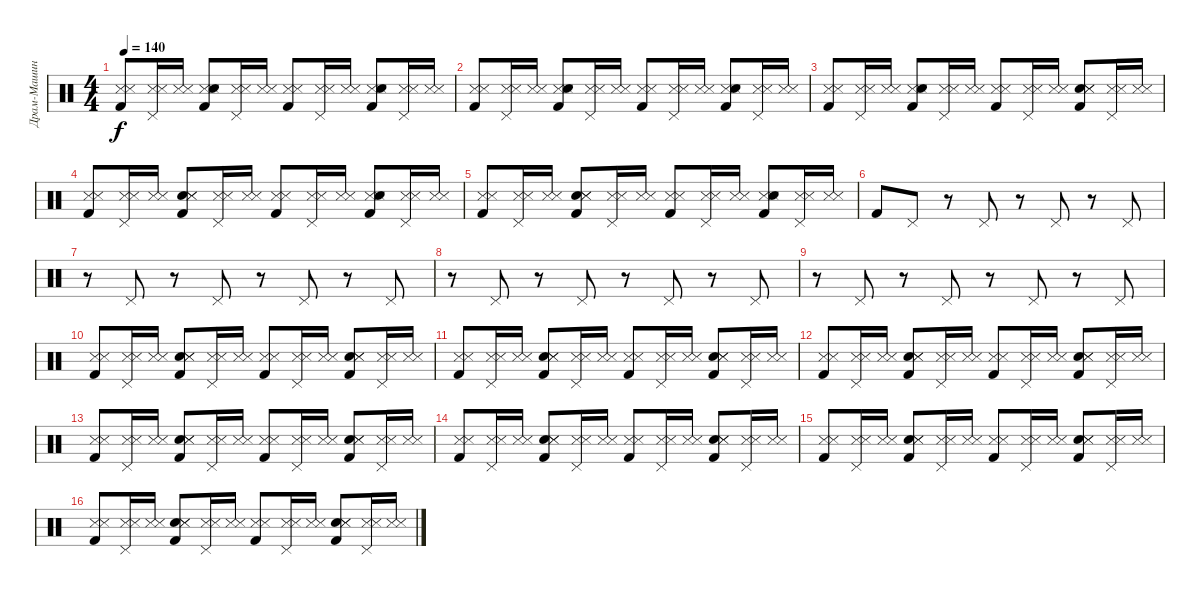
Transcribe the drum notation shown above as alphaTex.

\track ("Драм-Машина" "Драм-Машин") {instrument percussion}
\staff {score}
\articulation defaults
\ts (4 4)
\tempo 140
\clef neutral
\ks c
("Kick (hit) 2" "Snare (side stick) 3" "Metronome (hit)").8{dy f} ("Pedal Hi-Hat (hit)" "Snare (side stick) 3" "Metronome (hit)").16 ("Snare (side stick) 3" "Metronome (hit)").16 ("Kick (hit) 2" "Snare (side stick) 3" "Snare (hit) 2" "Metronome (hit)").8 ("Pedal Hi-Hat (hit)" "Snare (side stick) 3" "Metronome (hit)").16 ("Snare (side stick) 3" "Metronome (hit)").16 ("Snare (side stick) 3" "Kick (hit) 2" "Metronome (hit)").8 ("Snare (side stick) 3" "Pedal Hi-Hat (hit)" "Metronome (hit)").16 ("Snare (side stick) 3" "Metronome (hit)").16 ("Snare (side stick) 3" "Snare (hit) 2" "Kick (hit) 2" "Metronome (hit)").8 ("Pedal Hi-Hat (hit)" "Snare (side stick) 3" "Metronome (hit)").16 ("Snare (side stick) 3" "Metronome (hit)").16 |
("Snare (side stick) 3" "Kick (hit) 2" "Metronome (hit)").8 ("Pedal Hi-Hat (hit)" "Snare (side stick) 3" "Metronome (hit)").16 ("Snare (side stick) 3" "Metronome (hit)").16 ("Snare (side stick) 3" "Snare (hit) 2" "Kick (hit) 2" "Metronome (hit)").8 ("Pedal Hi-Hat (hit)" "Snare (side stick) 3" "Metronome (hit)").16 ("Snare (side stick) 3" "Metronome (hit)").16 ("Snare (side stick) 3" "Kick (hit) 2" "Metronome (hit)").8 ("Snare (side stick) 3" "Pedal Hi-Hat (hit)" "Metronome (hit)").16 ("Snare (side stick) 3" "Metronome (hit)").16 ("Snare (side stick) 3" "Kick (hit) 2" "Snare (hit) 2" "Metronome (hit)").8 ("Pedal Hi-Hat (hit)" "Snare (side stick) 3" "Metronome (hit)").16 ("Snare (side stick) 3" "Metronome (hit)").16 |
("Kick (hit) 2" "Snare (side stick) 3" "Metronome (hit)").8 ("Snare (side stick) 3" "Pedal Hi-Hat (hit)" "Metronome (hit)").16 ("Snare (side stick) 3" "Metronome (hit)").16 ("Kick (hit) 2" "Snare (side stick) 3" "Snare (hit) 2" "Metronome (hit)").8 ("Snare (side stick) 3" "Pedal Hi-Hat (hit)" "Metronome (hit)").16 ("Snare (side stick) 3" "Metronome (hit)").16 ("Snare (side stick) 3" "Kick (hit) 2" "Metronome (hit)").8 ("Snare (side stick) 3" "Pedal Hi-Hat (hit)" "Metronome (hit)").16 ("Snare (side stick) 3" "Metronome (hit)").16 ("Kick (hit) 2" "Snare (hit) 2" "Snare (side stick) 3" "Metronome (hit)").8 ("Snare (side stick) 3" "Pedal Hi-Hat (hit)" "Metronome (hit)").16 ("Snare (side stick) 3" "Metronome (hit)").16 |
("Kick (hit) 2" "Snare (side stick) 3" "Metronome (hit)").8 ("Pedal Hi-Hat (hit)" "Snare (side stick) 3" "Metronome (hit)").16 ("Snare (side stick) 3" "Metronome (hit)").16 ("Snare (hit) 2" "Kick (hit) 2" "Snare (side stick) 3" "Metronome (hit)").8 ("Snare (side stick) 3" "Pedal Hi-Hat (hit)" "Metronome (hit)").16 ("Snare (side stick) 3" "Metronome (hit)").16 ("Snare (side stick) 3" "Kick (hit) 2" "Metronome (hit)").8 ("Pedal Hi-Hat (hit)" "Snare (side stick) 3" "Metronome (hit)").16 ("Snare (side stick) 3" "Metronome (hit)").16 ("Snare (side stick) 3" "Snare (hit) 2" "Kick (hit) 2" "Metronome (hit)").8 ("Snare (side stick) 3" "Pedal Hi-Hat (hit)" "Metronome (hit)").16 ("Snare (side stick) 3" "Metronome (hit)").16 |
("Kick (hit) 2" "Snare (side stick) 3" "Metronome (hit)").8 ("Pedal Hi-Hat (hit)" "Snare (side stick) 3" "Metronome (hit)").16 ("Snare (side stick) 3" "Metronome (hit)").16 ("Snare (hit) 2" "Kick (hit) 2" "Snare (side stick) 3" "Metronome (hit)").8 ("Pedal Hi-Hat (hit)" "Snare (side stick) 3" "Metronome (hit)").16 ("Snare (side stick) 3" "Metronome (hit)").16 ("Kick (hit) 2" "Snare (side stick) 3" "Metronome (hit)").8 ("Snare (side stick) 3" "Pedal Hi-Hat (hit)" "Metronome (hit)").16 ("Snare (side stick) 3" "Metronome (hit)").16 ("Snare (side stick) 3" "Kick (hit) 2" "Snare (hit) 2" "Metronome (hit)").8 ("Pedal Hi-Hat (hit)" "Snare (side stick) 3" "Metronome (hit)").16 ("Snare (side stick) 3" "Metronome (hit)").16 |
"Kick (hit) 2".8 "Pedal Hi-Hat (hit)".8 r.8 "Pedal Hi-Hat (hit)".8 r.8 "Pedal Hi-Hat (hit)".8 r.8 "Pedal Hi-Hat (hit)".8 |
r.8 "Pedal Hi-Hat (hit)".8 r.8 "Pedal Hi-Hat (hit)".8 r.8 "Pedal Hi-Hat (hit)".8 r.8 "Pedal Hi-Hat (hit)".8 |
r.8 "Pedal Hi-Hat (hit)".8 r.8 "Pedal Hi-Hat (hit)".8 r.8 "Pedal Hi-Hat (hit)".8 r.8 "Pedal Hi-Hat (hit)".8 |
r.8 "Pedal Hi-Hat (hit)".8 r.8 "Pedal Hi-Hat (hit)".8 r.8 "Pedal Hi-Hat (hit)".8 r.8 "Pedal Hi-Hat (hit)".8 |
("Kick (hit) 2" "Snare (side stick) 3" "Metronome (hit)").8 ("Pedal Hi-Hat (hit)" "Snare (side stick) 3" "Metronome (hit)").16 ("Snare (side stick) 3" "Metronome (hit)").16 ("Snare (hit) 2" "Snare (side stick) 3" "Kick (hit) 2" "Metronome (hit)").8 ("Pedal Hi-Hat (hit)" "Snare (side stick) 3" "Metronome (hit)").16 ("Snare (side stick) 3" "Metronome (hit)").16 ("Kick (hit) 2" "Snare (side stick) 3" "Metronome (hit)").8 ("Pedal Hi-Hat (hit)" "Snare (side stick) 3" "Metronome (hit)").16 ("Snare (side stick) 3" "Metronome (hit)").16 ("Snare (hit) 2" "Snare (side stick) 3" "Kick (hit) 2" "Metronome (hit)").8 ("Pedal Hi-Hat (hit)" "Snare (side stick) 3" "Metronome (hit)").16 ("Snare (side stick) 3" "Metronome (hit)").16 |
("Kick (hit) 2" "Snare (side stick) 3" "Metronome (hit)").8 ("Pedal Hi-Hat (hit)" "Snare (side stick) 3" "Metronome (hit)").16 ("Snare (side stick) 3" "Metronome (hit)").16 ("Snare (hit) 2" "Snare (side stick) 3" "Kick (hit) 2" "Metronome (hit)").8 ("Pedal Hi-Hat (hit)" "Snare (side stick) 3" "Metronome (hit)").16 ("Snare (side stick) 3" "Metronome (hit)").16 ("Kick (hit) 2" "Snare (side stick) 3" "Metronome (hit)").8 ("Pedal Hi-Hat (hit)" "Snare (side stick) 3" "Metronome (hit)").16 ("Snare (side stick) 3" "Metronome (hit)").16 ("Snare (hit) 2" "Snare (side stick) 3" "Kick (hit) 2" "Metronome (hit)").8 ("Pedal Hi-Hat (hit)" "Snare (side stick) 3" "Metronome (hit)").16 ("Snare (side stick) 3" "Metronome (hit)").16 |
("Kick (hit) 2" "Snare (side stick) 3" "Metronome (hit)").8 ("Pedal Hi-Hat (hit)" "Snare (side stick) 3" "Metronome (hit)").16 ("Snare (side stick) 3" "Metronome (hit)").16 ("Snare (hit) 2" "Snare (side stick) 3" "Kick (hit) 2" "Metronome (hit)").8 ("Pedal Hi-Hat (hit)" "Snare (side stick) 3" "Metronome (hit)").16 ("Snare (side stick) 3" "Metronome (hit)").16 ("Kick (hit) 2" "Snare (side stick) 3" "Metronome (hit)").8 ("Pedal Hi-Hat (hit)" "Snare (side stick) 3" "Metronome (hit)").16 ("Snare (side stick) 3" "Metronome (hit)").16 ("Snare (hit) 2" "Snare (side stick) 3" "Kick (hit) 2" "Metronome (hit)").8 ("Pedal Hi-Hat (hit)" "Snare (side stick) 3" "Metronome (hit)").16 ("Snare (side stick) 3" "Metronome (hit)").16 |
("Kick (hit) 2" "Snare (side stick) 3" "Metronome (hit)").8 ("Pedal Hi-Hat (hit)" "Snare (side stick) 3" "Metronome (hit)").16 ("Snare (side stick) 3" "Metronome (hit)").16 ("Snare (hit) 2" "Kick (hit) 2" "Snare (side stick) 3" "Metronome (hit)").8 ("Snare (side stick) 3" "Pedal Hi-Hat (hit)" "Metronome (hit)").16 ("Snare (side stick) 3" "Metronome (hit)").16 ("Kick (hit) 2" "Snare (side stick) 3" "Metronome (hit)").8 ("Pedal Hi-Hat (hit)" "Snare (side stick) 3" "Metronome (hit)").16 ("Snare (side stick) 3" "Metronome (hit)").16 ("Snare (hit) 2" "Kick (hit) 2" "Snare (side stick) 3" "Metronome (hit)").8 ("Snare (side stick) 3" "Pedal Hi-Hat (hit)" "Metronome (hit)").16 ("Snare (side stick) 3" "Metronome (hit)").16 |
("Kick (hit) 2" "Snare (side stick) 3" "Metronome (hit)").8 ("Pedal Hi-Hat (hit)" "Snare (side stick) 3" "Metronome (hit)").16 ("Snare (side stick) 3" "Metronome (hit)").16 ("Snare (hit) 2" "Kick (hit) 2" "Snare (side stick) 3" "Metronome (hit)").8 ("Snare (side stick) 3" "Pedal Hi-Hat (hit)" "Metronome (hit)").16 ("Snare (side stick) 3" "Metronome (hit)").16 ("Kick (hit) 2" "Snare (side stick) 3" "Metronome (hit)").8 ("Pedal Hi-Hat (hit)" "Snare (side stick) 3" "Metronome (hit)").16 ("Snare (side stick) 3" "Metronome (hit)").16 ("Snare (hit) 2" "Kick (hit) 2" "Snare (side stick) 3" "Metronome (hit)").8 ("Snare (side stick) 3" "Pedal Hi-Hat (hit)" "Metronome (hit)").16 ("Snare (side stick) 3" "Metronome (hit)").16 |
("Kick (hit) 2" "Snare (side stick) 3" "Metronome (hit)").8 ("Pedal Hi-Hat (hit)" "Snare (side stick) 3" "Metronome (hit)").16 ("Snare (side stick) 3" "Metronome (hit)").16 ("Snare (hit) 2" "Kick (hit) 2" "Snare (side stick) 3" "Metronome (hit)").8 ("Snare (side stick) 3" "Pedal Hi-Hat (hit)" "Metronome (hit)").16 ("Snare (side stick) 3" "Metronome (hit)").16 ("Kick (hit) 2" "Snare (side stick) 3" "Metronome (hit)").8 ("Pedal Hi-Hat (hit)" "Snare (side stick) 3" "Metronome (hit)").16 ("Snare (side stick) 3" "Metronome (hit)").16 ("Snare (hit) 2" "Kick (hit) 2" "Snare (side stick) 3" "Metronome (hit)").8 ("Snare (side stick) 3" "Pedal Hi-Hat (hit)" "Metronome (hit)").16 ("Snare (side stick) 3" "Metronome (hit)").16 |
("Kick (hit) 2" "Snare (side stick) 3" "Metronome (hit)").8 ("Pedal Hi-Hat (hit)" "Snare (side stick) 3" "Metronome (hit)").16 ("Snare (side stick) 3" "Metronome (hit)").16 ("Snare (hit) 2" "Kick (hit) 2" "Snare (side stick) 3" "Metronome (hit)").8 ("Snare (side stick) 3" "Pedal Hi-Hat (hit)" "Metronome (hit)").16 ("Snare (side stick) 3" "Metronome (hit)").16 ("Kick (hit) 2" "Snare (side stick) 3" "Metronome (hit)").8 ("Pedal Hi-Hat (hit)" "Snare (side stick) 3" "Metronome (hit)").16 ("Snare (side stick) 3" "Metronome (hit)").16 ("Snare (hit) 2" "Kick (hit) 2" "Snare (side stick) 3" "Metronome (hit)").8 ("Snare (side stick) 3" "Pedal Hi-Hat (hit)" "Metronome (hit)").16 ("Snare (side stick) 3" "Metronome (hit)").16
